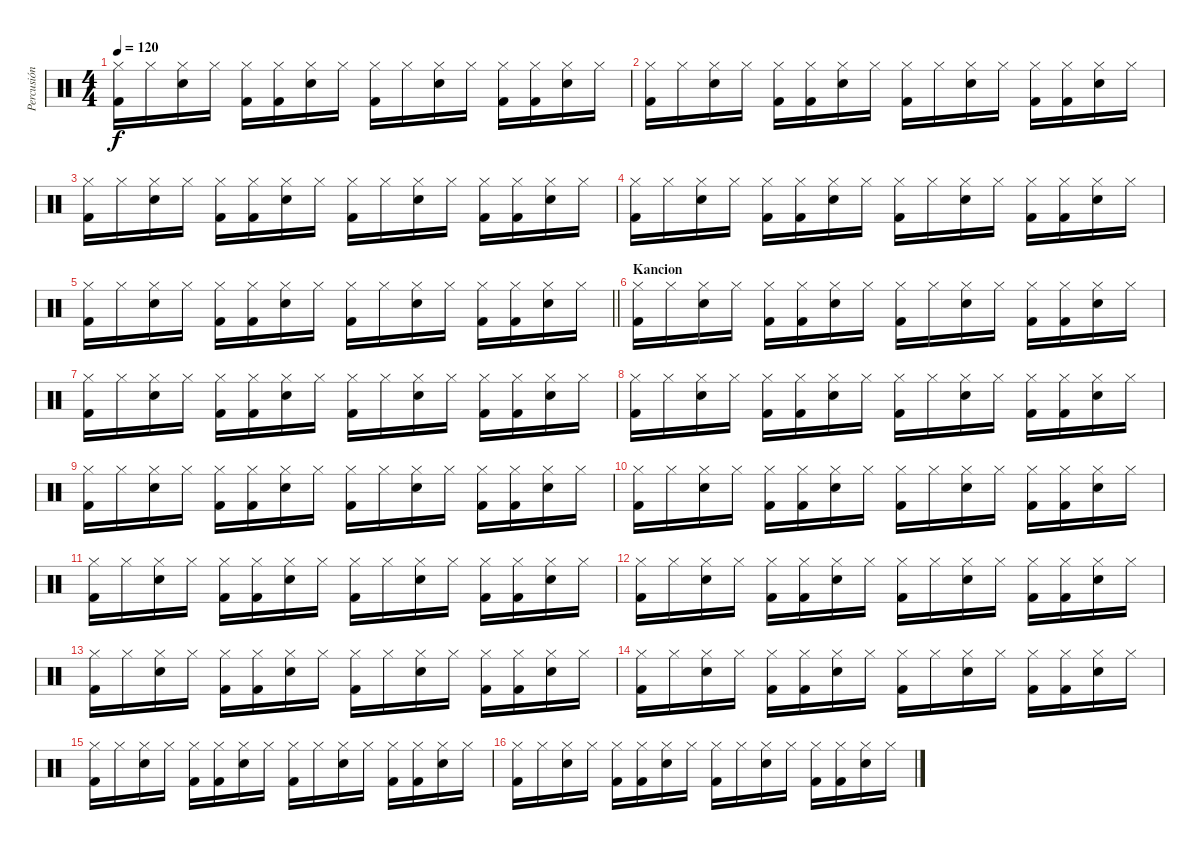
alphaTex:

\track ("Percusión" "Percusión") {instrument percussion}
\staff {score}
\articulation defaults
\ts (4 4)
\tempo 120
\clef neutral
\ks c
("Kick (hit) 2" "Hi-Hat (closed)").16{dy f} "Hi-Hat (closed)".16 ("Electric Snare (hit)" "Hi-Hat (closed)").16 "Hi-Hat (closed)".16 ("Kick (hit) 2" "Hi-Hat (closed)").16 ("Kick (hit) 2" "Hi-Hat (closed)").16 ("Electric Snare (hit)" "Hi-Hat (closed)").16 "Hi-Hat (closed)".16 ("Kick (hit) 2" "Hi-Hat (closed)").16 "Hi-Hat (closed)".16 ("Electric Snare (hit)" "Hi-Hat (closed)").16 "Hi-Hat (closed)".16 ("Kick (hit) 2" "Hi-Hat (closed)").16 ("Kick (hit) 2" "Hi-Hat (closed)").16 ("Electric Snare (hit)" "Hi-Hat (closed)").16 "Hi-Hat (closed)".16 |
("Kick (hit) 2" "Hi-Hat (closed)").16 "Hi-Hat (closed)".16 ("Electric Snare (hit)" "Hi-Hat (closed)").16 "Hi-Hat (closed)".16 ("Kick (hit) 2" "Hi-Hat (closed)").16 ("Kick (hit) 2" "Hi-Hat (closed)").16 ("Electric Snare (hit)" "Hi-Hat (closed)").16 "Hi-Hat (closed)".16 ("Kick (hit) 2" "Hi-Hat (closed)").16 "Hi-Hat (closed)".16 ("Electric Snare (hit)" "Hi-Hat (closed)").16 "Hi-Hat (closed)".16 ("Kick (hit) 2" "Hi-Hat (closed)").16 ("Kick (hit) 2" "Hi-Hat (closed)").16 ("Electric Snare (hit)" "Hi-Hat (closed)").16 "Hi-Hat (closed)".16 |
("Kick (hit) 2" "Hi-Hat (closed)").16 "Hi-Hat (closed)".16 ("Electric Snare (hit)" "Hi-Hat (closed)").16 "Hi-Hat (closed)".16 ("Kick (hit) 2" "Hi-Hat (closed)").16 ("Kick (hit) 2" "Hi-Hat (closed)").16 ("Electric Snare (hit)" "Hi-Hat (closed)").16 "Hi-Hat (closed)".16 ("Kick (hit) 2" "Hi-Hat (closed)").16 "Hi-Hat (closed)".16 ("Electric Snare (hit)" "Hi-Hat (closed)").16 "Hi-Hat (closed)".16 ("Kick (hit) 2" "Hi-Hat (closed)").16 ("Kick (hit) 2" "Hi-Hat (closed)").16 ("Electric Snare (hit)" "Hi-Hat (closed)").16 "Hi-Hat (closed)".16 |
("Kick (hit) 2" "Hi-Hat (closed)").16 "Hi-Hat (closed)".16 ("Electric Snare (hit)" "Hi-Hat (closed)").16 "Hi-Hat (closed)".16 ("Kick (hit) 2" "Hi-Hat (closed)").16 ("Kick (hit) 2" "Hi-Hat (closed)").16 ("Electric Snare (hit)" "Hi-Hat (closed)").16 "Hi-Hat (closed)".16 ("Kick (hit) 2" "Hi-Hat (closed)").16 "Hi-Hat (closed)".16 ("Electric Snare (hit)" "Hi-Hat (closed)").16 "Hi-Hat (closed)".16 ("Kick (hit) 2" "Hi-Hat (closed)").16 ("Kick (hit) 2" "Hi-Hat (closed)").16 ("Electric Snare (hit)" "Hi-Hat (closed)").16 "Hi-Hat (closed)".16 |
\barLineRight lightlight
("Kick (hit) 2" "Hi-Hat (closed)").16 "Hi-Hat (closed)".16 ("Electric Snare (hit)" "Hi-Hat (closed)").16 "Hi-Hat (closed)".16 ("Kick (hit) 2" "Hi-Hat (closed)").16 ("Kick (hit) 2" "Hi-Hat (closed)").16 ("Electric Snare (hit)" "Hi-Hat (closed)").16 "Hi-Hat (closed)".16 ("Kick (hit) 2" "Hi-Hat (closed)").16 "Hi-Hat (closed)".16 ("Electric Snare (hit)" "Hi-Hat (closed)").16 "Hi-Hat (closed)".16 ("Kick (hit) 2" "Hi-Hat (closed)").16 ("Kick (hit) 2" "Hi-Hat (closed)").16 ("Electric Snare (hit)" "Hi-Hat (closed)").16 "Hi-Hat (closed)".16 |
\section ("" "Kancion")
("Kick (hit) 2" "Hi-Hat (closed)").16 "Hi-Hat (closed)".16 ("Electric Snare (hit)" "Hi-Hat (closed)").16 "Hi-Hat (closed)".16 ("Kick (hit) 2" "Hi-Hat (closed)").16 ("Kick (hit) 2" "Hi-Hat (closed)").16 ("Electric Snare (hit)" "Hi-Hat (closed)").16 "Hi-Hat (closed)".16 ("Kick (hit) 2" "Hi-Hat (closed)").16 "Hi-Hat (closed)".16 ("Electric Snare (hit)" "Hi-Hat (closed)").16 "Hi-Hat (closed)".16 ("Kick (hit) 2" "Hi-Hat (closed)").16 ("Kick (hit) 2" "Hi-Hat (closed)").16 ("Electric Snare (hit)" "Hi-Hat (closed)").16 "Hi-Hat (closed)".16 |
("Kick (hit) 2" "Hi-Hat (closed)").16 "Hi-Hat (closed)".16 ("Electric Snare (hit)" "Hi-Hat (closed)").16 "Hi-Hat (closed)".16 ("Kick (hit) 2" "Hi-Hat (closed)").16 ("Kick (hit) 2" "Hi-Hat (closed)").16 ("Electric Snare (hit)" "Hi-Hat (closed)").16 "Hi-Hat (closed)".16 ("Kick (hit) 2" "Hi-Hat (closed)").16 "Hi-Hat (closed)".16 ("Electric Snare (hit)" "Hi-Hat (closed)").16 "Hi-Hat (closed)".16 ("Kick (hit) 2" "Hi-Hat (closed)").16 ("Kick (hit) 2" "Hi-Hat (closed)").16 ("Electric Snare (hit)" "Hi-Hat (closed)").16 "Hi-Hat (closed)".16 |
("Kick (hit) 2" "Hi-Hat (closed)").16 "Hi-Hat (closed)".16 ("Electric Snare (hit)" "Hi-Hat (closed)").16 "Hi-Hat (closed)".16 ("Kick (hit) 2" "Hi-Hat (closed)").16 ("Kick (hit) 2" "Hi-Hat (closed)").16 ("Electric Snare (hit)" "Hi-Hat (closed)").16 "Hi-Hat (closed)".16 ("Kick (hit) 2" "Hi-Hat (closed)").16 "Hi-Hat (closed)".16 ("Electric Snare (hit)" "Hi-Hat (closed)").16 "Hi-Hat (closed)".16 ("Kick (hit) 2" "Hi-Hat (closed)").16 ("Kick (hit) 2" "Hi-Hat (closed)").16 ("Electric Snare (hit)" "Hi-Hat (closed)").16 "Hi-Hat (closed)".16 |
("Kick (hit) 2" "Hi-Hat (closed)").16 "Hi-Hat (closed)".16 ("Electric Snare (hit)" "Hi-Hat (closed)").16 "Hi-Hat (closed)".16 ("Kick (hit) 2" "Hi-Hat (closed)").16 ("Kick (hit) 2" "Hi-Hat (closed)").16 ("Electric Snare (hit)" "Hi-Hat (closed)").16 "Hi-Hat (closed)".16 ("Kick (hit) 2" "Hi-Hat (closed)").16 "Hi-Hat (closed)".16 ("Electric Snare (hit)" "Hi-Hat (closed)").16 "Hi-Hat (closed)".16 ("Kick (hit) 2" "Hi-Hat (closed)").16 ("Kick (hit) 2" "Hi-Hat (closed)").16 ("Electric Snare (hit)" "Hi-Hat (closed)").16 "Hi-Hat (closed)".16 |
("Kick (hit) 2" "Hi-Hat (closed)").16 "Hi-Hat (closed)".16 ("Electric Snare (hit)" "Hi-Hat (closed)").16 "Hi-Hat (closed)".16 ("Kick (hit) 2" "Hi-Hat (closed)").16 ("Kick (hit) 2" "Hi-Hat (closed)").16 ("Electric Snare (hit)" "Hi-Hat (closed)").16 "Hi-Hat (closed)".16 ("Kick (hit) 2" "Hi-Hat (closed)").16 "Hi-Hat (closed)".16 ("Electric Snare (hit)" "Hi-Hat (closed)").16 "Hi-Hat (closed)".16 ("Kick (hit) 2" "Hi-Hat (closed)").16 ("Kick (hit) 2" "Hi-Hat (closed)").16 ("Electric Snare (hit)" "Hi-Hat (closed)").16 "Hi-Hat (closed)".16 |
("Kick (hit) 2" "Hi-Hat (closed)").16 "Hi-Hat (closed)".16 ("Electric Snare (hit)" "Hi-Hat (closed)").16 "Hi-Hat (closed)".16 ("Kick (hit) 2" "Hi-Hat (closed)").16 ("Kick (hit) 2" "Hi-Hat (closed)").16 ("Electric Snare (hit)" "Hi-Hat (closed)").16 "Hi-Hat (closed)".16 ("Kick (hit) 2" "Hi-Hat (closed)").16 "Hi-Hat (closed)".16 ("Electric Snare (hit)" "Hi-Hat (closed)").16 "Hi-Hat (closed)".16 ("Kick (hit) 2" "Hi-Hat (closed)").16 ("Kick (hit) 2" "Hi-Hat (closed)").16 ("Electric Snare (hit)" "Hi-Hat (closed)").16 "Hi-Hat (closed)".16 |
("Kick (hit) 2" "Hi-Hat (closed)").16 "Hi-Hat (closed)".16 ("Electric Snare (hit)" "Hi-Hat (closed)").16 "Hi-Hat (closed)".16 ("Kick (hit) 2" "Hi-Hat (closed)").16 ("Kick (hit) 2" "Hi-Hat (closed)").16 ("Electric Snare (hit)" "Hi-Hat (closed)").16 "Hi-Hat (closed)".16 ("Kick (hit) 2" "Hi-Hat (closed)").16 "Hi-Hat (closed)".16 ("Electric Snare (hit)" "Hi-Hat (closed)").16 "Hi-Hat (closed)".16 ("Kick (hit) 2" "Hi-Hat (closed)").16 ("Kick (hit) 2" "Hi-Hat (closed)").16 ("Electric Snare (hit)" "Hi-Hat (closed)").16 "Hi-Hat (closed)".16 |
("Kick (hit) 2" "Hi-Hat (closed)").16 "Hi-Hat (closed)".16 ("Electric Snare (hit)" "Hi-Hat (closed)").16 "Hi-Hat (closed)".16 ("Kick (hit) 2" "Hi-Hat (closed)").16 ("Kick (hit) 2" "Hi-Hat (closed)").16 ("Electric Snare (hit)" "Hi-Hat (closed)").16 "Hi-Hat (closed)".16 ("Kick (hit) 2" "Hi-Hat (closed)").16 "Hi-Hat (closed)".16 ("Electric Snare (hit)" "Hi-Hat (closed)").16 "Hi-Hat (closed)".16 ("Kick (hit) 2" "Hi-Hat (closed)").16 ("Kick (hit) 2" "Hi-Hat (closed)").16 ("Electric Snare (hit)" "Hi-Hat (closed)").16 "Hi-Hat (closed)".16 |
("Kick (hit) 2" "Hi-Hat (closed)").16 "Hi-Hat (closed)".16 ("Electric Snare (hit)" "Hi-Hat (closed)").16 "Hi-Hat (closed)".16 ("Kick (hit) 2" "Hi-Hat (closed)").16 ("Kick (hit) 2" "Hi-Hat (closed)").16 ("Electric Snare (hit)" "Hi-Hat (closed)").16 "Hi-Hat (closed)".16 ("Kick (hit) 2" "Hi-Hat (closed)").16 "Hi-Hat (closed)".16 ("Electric Snare (hit)" "Hi-Hat (closed)").16 "Hi-Hat (closed)".16 ("Kick (hit) 2" "Hi-Hat (closed)").16 ("Kick (hit) 2" "Hi-Hat (closed)").16 ("Electric Snare (hit)" "Hi-Hat (closed)").16 "Hi-Hat (closed)".16 |
("Kick (hit) 2" "Hi-Hat (closed)").16 "Hi-Hat (closed)".16 ("Electric Snare (hit)" "Hi-Hat (closed)").16 "Hi-Hat (closed)".16 ("Kick (hit) 2" "Hi-Hat (closed)").16 ("Kick (hit) 2" "Hi-Hat (closed)").16 ("Electric Snare (hit)" "Hi-Hat (closed)").16 "Hi-Hat (closed)".16 ("Kick (hit) 2" "Hi-Hat (closed)").16 "Hi-Hat (closed)".16 ("Electric Snare (hit)" "Hi-Hat (closed)").16 "Hi-Hat (closed)".16 ("Kick (hit) 2" "Hi-Hat (closed)").16 ("Kick (hit) 2" "Hi-Hat (closed)").16 ("Electric Snare (hit)" "Hi-Hat (closed)").16 "Hi-Hat (closed)".16 |
("Kick (hit) 2" "Hi-Hat (closed)").16 "Hi-Hat (closed)".16 ("Electric Snare (hit)" "Hi-Hat (closed)").16 "Hi-Hat (closed)".16 ("Kick (hit) 2" "Hi-Hat (closed)").16 ("Kick (hit) 2" "Hi-Hat (closed)").16 ("Electric Snare (hit)" "Hi-Hat (closed)").16 "Hi-Hat (closed)".16 ("Kick (hit) 2" "Hi-Hat (closed)").16 "Hi-Hat (closed)".16 ("Electric Snare (hit)" "Hi-Hat (closed)").16 "Hi-Hat (closed)".16 ("Kick (hit) 2" "Hi-Hat (closed)").16 ("Kick (hit) 2" "Hi-Hat (closed)").16 ("Electric Snare (hit)" "Hi-Hat (closed)").16 "Hi-Hat (closed)".16
